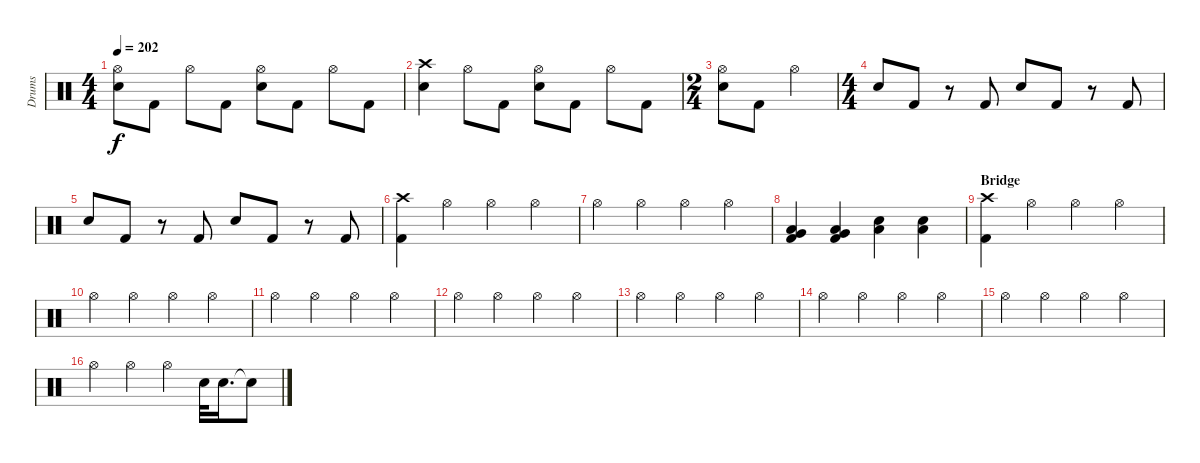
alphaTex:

\track ("Drums" "Drums") {instrument percussion}
\staff {score}
\articulation defaults
\ts (4 4)
\tempo 202
\clef neutral
\ks c
("Hi-Hat (open)" "Electric Snare (hit)").8{dy f} "Kick (hit) 2".8 "Hi-Hat (open)".8 "Kick (hit) 2".8 ("Hi-Hat (open)" "Electric Snare (hit)").8 "Kick (hit) 2".8 "Hi-Hat (open)".8 "Kick (hit) 2".8 |
("Crash high (hit)" "Electric Snare (hit)").4 "Hi-Hat (open)".8 "Kick (hit) 2".8 ("Hi-Hat (open)" "Electric Snare (hit)").8 "Kick (hit) 2".8 "Hi-Hat (open)".8 "Kick (hit) 2".8 |
\ts (2 4)
("Hi-Hat (open)" "Electric Snare (hit)").8 "Kick (hit) 2".8 "Hi-Hat (open)".4 |
\ts (4 4)
"Electric Snare (hit)".8 "Kick (hit) 2".8 r.8 "Kick (hit) 2".8 "Electric Snare (hit)".8 "Kick (hit) 2".8 r.8 "Kick (hit) 2".8 |
"Electric Snare (hit)".8 "Kick (hit) 2".8 r.8 "Kick (hit) 2".8 "Electric Snare (hit)".8 "Kick (hit) 2".8 r.8 "Kick (hit) 2".8 |
("Crash high (hit)" "Kick (hit) 2").4 "Hi-Hat (open)".4 "Hi-Hat (open)".4 "Hi-Hat (open)".4 |
"Hi-Hat (open)".4 "Hi-Hat (open)".4 "Hi-Hat (open)".4 "Hi-Hat (open)".4 |
("Very Low Tom (hit)" "Low Floor Tom (hit)" "Kick (hit) 2").4 ("Very Low Tom (hit)" "Low Floor Tom (hit)" "Kick (hit) 2").4 ("Low Floor Tom (hit)" "Electric Snare (hit)").4 ("Low Floor Tom (hit)" "Electric Snare (hit)").4 |
\section ("" "Bridge")
("Crash high (hit)" "Kick (hit) 2").4 "Hi-Hat (open)".4 "Hi-Hat (open)".4 "Hi-Hat (open)".4 |
"Hi-Hat (open)".4 "Hi-Hat (open)".4 "Hi-Hat (open)".4 "Hi-Hat (open)".4 |
"Hi-Hat (open)".4 "Hi-Hat (open)".4 "Hi-Hat (open)".4 "Hi-Hat (open)".4 |
"Hi-Hat (open)".4 "Hi-Hat (open)".4 "Hi-Hat (open)".4 "Hi-Hat (open)".4 |
"Hi-Hat (open)".4 "Hi-Hat (open)".4 "Hi-Hat (open)".4 "Hi-Hat (open)".4 |
"Hi-Hat (open)".4 "Hi-Hat (open)".4 "Hi-Hat (open)".4 "Hi-Hat (open)".4 |
"Hi-Hat (open)".4 "Hi-Hat (open)".4 "Hi-Hat (open)".4 "Hi-Hat (open)".4 |
"Hi-Hat (open)".4 "Hi-Hat (open)".4 "Hi-Hat (open)".4 "Electric Snare (hit)".32 "Electric Snare (hit)".16{d} "Electric Snare (hit)"{t}.8
